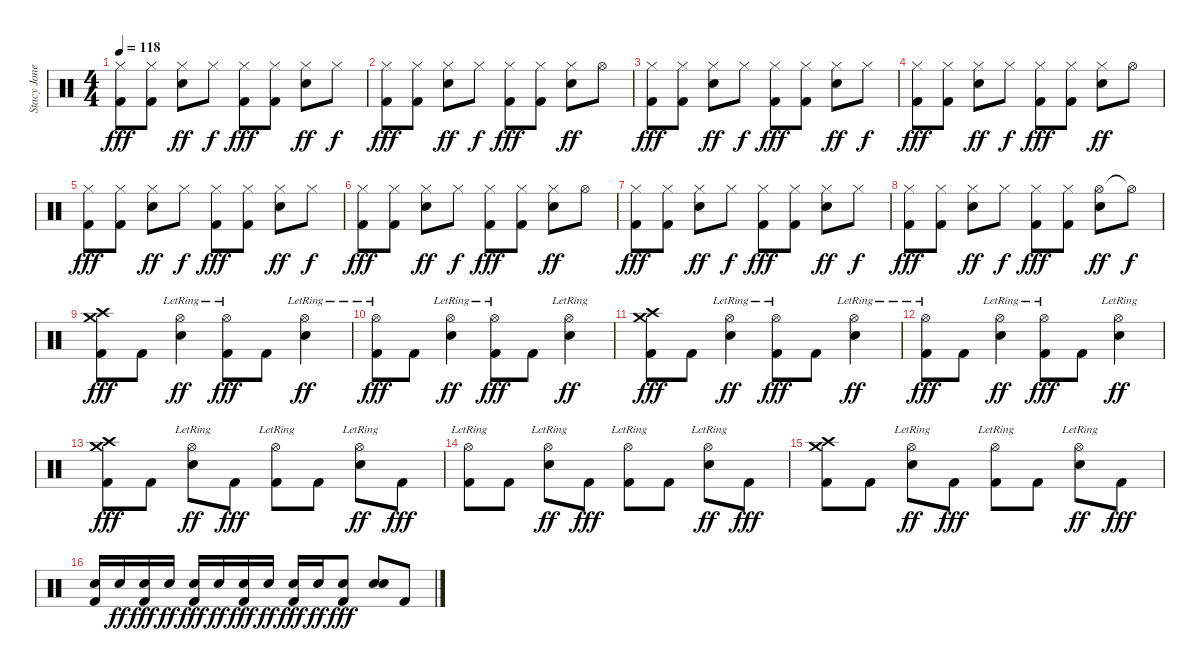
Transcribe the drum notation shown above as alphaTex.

\track ("Stacy Jones: Remo/Sabian HHX/AAX" "Stacy Jone") {instrument percussion}
\staff {score}
\articulation defaults
\ts (4 4)
\tempo 118
\clef neutral
\ks c
("Hi-Hat (closed)" "Kick (hit) 2").8{dy fff} ("Hi-Hat (closed)" "Kick (hit) 2").8 ("Hi-Hat (closed)" "Electric Snare (hit)").8{dy ff} "Hi-Hat (closed)".8{dy f} ("Hi-Hat (closed)" "Kick (hit) 2").8{dy fff} ("Hi-Hat (closed)" "Kick (hit) 2").8 ("Hi-Hat (closed)" "Electric Snare (hit)").8{dy ff} "Hi-Hat (closed)".8{dy f} |
("Hi-Hat (closed)" "Kick (hit) 2").8{dy fff} ("Hi-Hat (closed)" "Kick (hit) 2").8 ("Hi-Hat (closed)" "Electric Snare (hit)").8{dy ff} "Hi-Hat (closed)".8{dy f} ("Hi-Hat (closed)" "Kick (hit) 2").8{dy fff} ("Hi-Hat (closed)" "Kick (hit) 2").8 ("Hi-Hat (closed)" "Electric Snare (hit)").8{dy ff} "Hi-Hat (open)".8 |
("Hi-Hat (closed)" "Kick (hit) 2").8{dy fff} ("Hi-Hat (closed)" "Kick (hit) 2").8 ("Hi-Hat (closed)" "Electric Snare (hit)").8{dy ff} "Hi-Hat (closed)".8{dy f} ("Hi-Hat (closed)" "Kick (hit) 2").8{dy fff} ("Hi-Hat (closed)" "Kick (hit) 2").8 ("Hi-Hat (closed)" "Electric Snare (hit)").8{dy ff} "Hi-Hat (closed)".8{dy f} |
("Hi-Hat (closed)" "Kick (hit) 2").8{dy fff} ("Hi-Hat (closed)" "Kick (hit) 2").8 ("Hi-Hat (closed)" "Electric Snare (hit)").8{dy ff} "Hi-Hat (closed)".8{dy f} ("Hi-Hat (closed)" "Kick (hit) 2").8{dy fff} ("Hi-Hat (closed)" "Kick (hit) 2").8 ("Hi-Hat (closed)" "Electric Snare (hit)").8{dy ff} "Hi-Hat (open)".8 |
("Hi-Hat (closed)" "Kick (hit) 2").8{dy fff} ("Hi-Hat (closed)" "Kick (hit) 2").8 ("Hi-Hat (closed)" "Electric Snare (hit)").8{dy ff} "Hi-Hat (closed)".8{dy f} ("Hi-Hat (closed)" "Kick (hit) 2").8{dy fff} ("Hi-Hat (closed)" "Kick (hit) 2").8 ("Hi-Hat (closed)" "Electric Snare (hit)").8{dy ff} "Hi-Hat (closed)".8{dy f} |
("Hi-Hat (closed)" "Kick (hit) 2").8{dy fff} ("Hi-Hat (closed)" "Kick (hit) 2").8 ("Hi-Hat (closed)" "Electric Snare (hit)").8{dy ff} "Hi-Hat (closed)".8{dy f} ("Hi-Hat (closed)" "Kick (hit) 2").8{dy fff} ("Hi-Hat (closed)" "Kick (hit) 2").8 ("Hi-Hat (closed)" "Electric Snare (hit)").8{dy ff} "Hi-Hat (open)".8 |
("Hi-Hat (closed)" "Kick (hit) 2").8{dy fff} ("Hi-Hat (closed)" "Kick (hit) 2").8 ("Hi-Hat (closed)" "Electric Snare (hit)").8{dy ff} "Hi-Hat (closed)".8{dy f} ("Hi-Hat (closed)" "Kick (hit) 2").8{dy fff} ("Hi-Hat (closed)" "Kick (hit) 2").8 ("Hi-Hat (closed)" "Electric Snare (hit)").8{dy ff} "Hi-Hat (closed)".8{dy f} |
("Hi-Hat (closed)" "Kick (hit) 2").8{dy fff} ("Hi-Hat (closed)" "Kick (hit) 2").8 ("Hi-Hat (closed)" "Electric Snare (hit)").8{dy ff} "Hi-Hat (closed)".8{dy f} ("Hi-Hat (closed)" "Kick (hit) 2").8{dy fff} ("Hi-Hat (closed)" "Kick (hit) 2").8 ("Hi-Hat (open)" "Electric Snare (hit)").8{dy ff} "Hi-Hat (open)"{t}.8{dy f} |
("Crash high (hit)" "Crash medium (hit)" "Kick (hit) 2").8{dy fff} "Kick (hit) 2".8 ("Hi-Hat (open)"{lr} "Electric Snare (hit)").4{dy ff} ("Hi-Hat (open)"{lr} "Kick (hit) 2").8{dy fff} "Kick (hit) 2".8 ("Hi-Hat (open)"{lr} "Electric Snare (hit)").4{dy ff} |
("Hi-Hat (open)"{lr} "Kick (hit) 2").8{dy fff} "Kick (hit) 2".8 ("Hi-Hat (open)"{lr} "Electric Snare (hit)").4{dy ff} ("Hi-Hat (open)"{lr} "Kick (hit) 2").8{dy fff} "Kick (hit) 2".8 ("Hi-Hat (open)"{lr} "Electric Snare (hit)").4{dy ff} |
("Crash high (hit)" "Crash medium (hit)" "Kick (hit) 2").8{dy fff} "Kick (hit) 2".8 ("Hi-Hat (open)"{lr} "Electric Snare (hit)").4{dy ff} ("Hi-Hat (open)"{lr} "Kick (hit) 2").8{dy fff} "Kick (hit) 2".8 ("Hi-Hat (open)"{lr} "Electric Snare (hit)").4{dy ff} |
("Hi-Hat (open)"{lr} "Kick (hit) 2").8{dy fff} "Kick (hit) 2".8 ("Hi-Hat (open)"{lr} "Electric Snare (hit)").4{dy ff} ("Hi-Hat (open)"{lr} "Kick (hit) 2").8{dy fff} "Kick (hit) 2".8 ("Hi-Hat (open)"{lr} "Electric Snare (hit)").4{dy ff} |
("Crash high (hit)" "Crash medium (hit)" "Kick (hit) 2").8{dy fff} "Kick (hit) 2".8 ("Hi-Hat (open)"{lr} "Electric Snare (hit)").8{dy ff} "Kick (hit) 2".8{dy fff} ("Hi-Hat (open)"{lr} "Kick (hit) 2").8 "Kick (hit) 2".8 ("Hi-Hat (open)"{lr} "Electric Snare (hit)").8{dy ff} "Kick (hit) 2".8{dy fff} |
("Hi-Hat (open)"{lr} "Kick (hit) 2").8 "Kick (hit) 2".8 ("Hi-Hat (open)"{lr} "Electric Snare (hit)").8{dy ff} "Kick (hit) 2".8{dy fff} ("Hi-Hat (open)"{lr} "Kick (hit) 2").8 "Kick (hit) 2".8 ("Hi-Hat (open)"{lr} "Electric Snare (hit)").8{dy ff} "Kick (hit) 2".8{dy fff} |
("Crash high (hit)" "Crash medium (hit)" "Kick (hit) 2").8 "Kick (hit) 2".8 ("Hi-Hat (open)"{lr} "Electric Snare (hit)").8{dy ff} "Kick (hit) 2".8{dy fff} ("Hi-Hat (open)"{lr} "Kick (hit) 2").8 "Kick (hit) 2".8 ("Hi-Hat (open)"{lr} "Electric Snare (hit)").8{dy ff} "Kick (hit) 2".8{dy fff} |
("Electric Snare (hit)" "Kick (hit) 2").16 "Electric Snare (hit)".16{dy ff} ("Electric Snare (hit)" "Kick (hit) 2").16{dy fff} "Electric Snare (hit)".16{dy ff} ("Electric Snare (hit)" "Kick (hit) 2").16{dy fff} "Electric Snare (hit)".16{dy ff} ("Electric Snare (hit)" "Kick (hit) 2").16{dy fff} "Electric Snare (hit)".16{dy ff} ("Electric Snare (hit)" "Kick (hit) 2").16{dy fff} "Electric Snare (hit)".16{dy ff} ("Electric Snare (hit)" "Kick (hit) 2").8{dy fff} ("Electric Snare (hit)" "Electric Snare (hit)").8 "Kick (hit) 2".8
